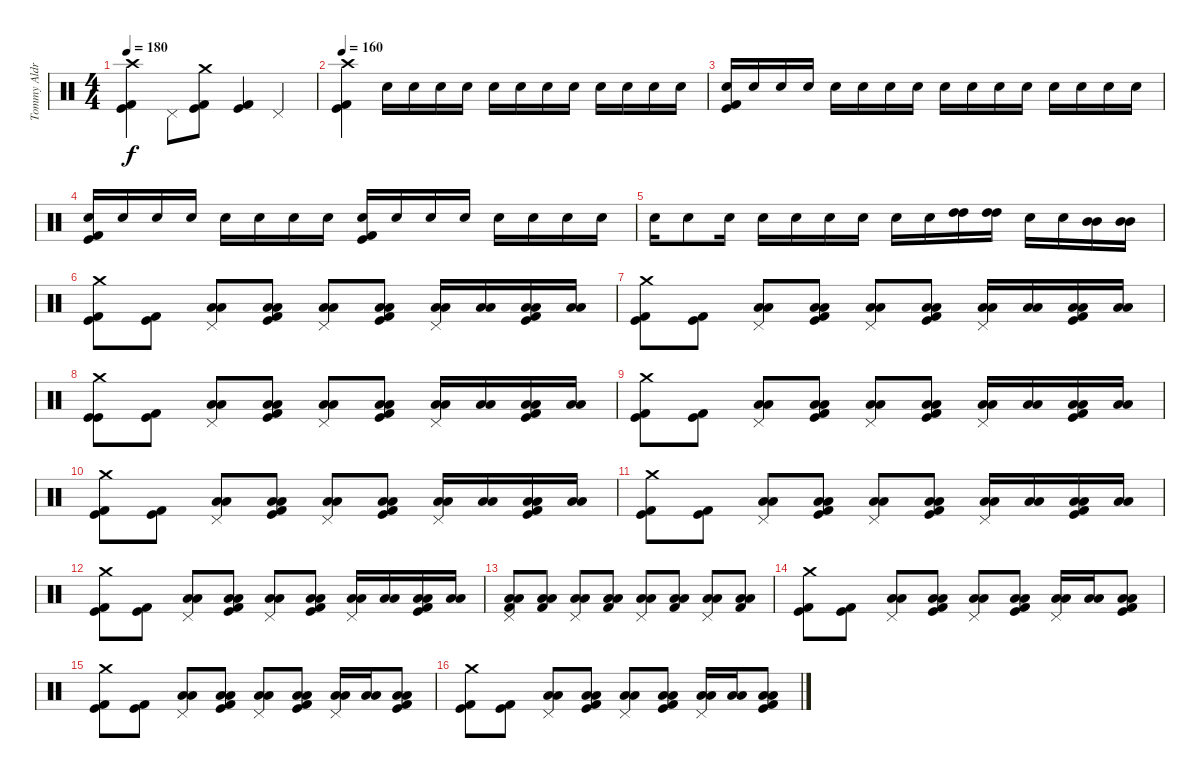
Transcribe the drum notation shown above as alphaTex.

\track ("Tommy Aldridge" "Tommy Aldr") {instrument percussion}
\staff {score}
\articulation defaults
\ts (4 4)
\tempo 180
\clef neutral
\ks c
("Crash high (hit)" "Kick (hit)" "Kick (hit) 2").4{dy f} "Pedal Hi-Hat (hit)".8 ("Crash medium (hit)" "Kick (hit)" "Kick (hit) 2").8 ("Kick (hit)" "Kick (hit) 2").4 "Pedal Hi-Hat (hit)".4 |
\tempo 160
("Crash high (hit)" "Kick (hit)" "Kick (hit) 2").4 "Electric Snare (hit)".16 "Electric Snare (hit)".16 "Electric Snare (hit)".16 "Electric Snare (hit)".16 "Electric Snare (hit)".16 "Electric Snare (hit)".16 "Electric Snare (hit)".16 "Electric Snare (hit)".16 "Electric Snare (hit)".16 "Electric Snare (hit)".16 "Electric Snare (hit)".16 "Electric Snare (hit)".16 |
("Electric Snare (hit)" "Kick (hit)" "Kick (hit) 2").16 "Electric Snare (hit)".16 "Electric Snare (hit)".16 "Electric Snare (hit)".16 "Electric Snare (hit)".16 "Electric Snare (hit)".16 "Electric Snare (hit)".16 "Electric Snare (hit)".16 "Electric Snare (hit)".16 "Electric Snare (hit)".16 "Electric Snare (hit)".16 "Electric Snare (hit)".16 "Electric Snare (hit)".16 "Electric Snare (hit)".16 "Electric Snare (hit)".16 "Electric Snare (hit)".16 |
("Electric Snare (hit)" "Kick (hit)" "Kick (hit) 2").16 "Electric Snare (hit)".16 "Electric Snare (hit)".16 "Electric Snare (hit)".16 "Electric Snare (hit)".16 "Electric Snare (hit)".16 "Electric Snare (hit)".16 "Electric Snare (hit)".16 ("Electric Snare (hit)" "Kick (hit)" "Kick (hit) 2").16 "Electric Snare (hit)".16 "Electric Snare (hit)".16 "Electric Snare (hit)".16 "Electric Snare (hit)".16 "Electric Snare (hit)".16 "Electric Snare (hit)".16 "Electric Snare (hit)".16 |
"Electric Snare (hit)".16 "Electric Snare (hit)".8 "Electric Snare (hit)".16 "Electric Snare (hit)".16 "Electric Snare (hit)".16 "Electric Snare (hit)".16 "Electric Snare (hit)".16 "Electric Snare (hit)".16 "Electric Snare (hit)".16 ("High Tom (hit)" "High Tom (hit)").16 ("High Tom (hit)" "High Tom (hit)").16 "Electric Snare (hit)".16 "Electric Snare (hit)".16 ("Mid Tom (hit)" "Mid Tom (hit)").16 ("Mid Tom (hit)" "Mid Tom (hit)").16 |
("Crash medium (hit)" "Kick (hit)" "Kick (hit) 2").8 ("Kick (hit)" "Kick (hit) 2").8 ("Pedal Hi-Hat (hit)" "Low Tom (hit)" "Low Tom (hit)").8 ("Low Tom (hit)" "Low Tom (hit)" "Kick (hit)" "Kick (hit) 2").8 ("Pedal Hi-Hat (hit)" "Low Tom (hit)" "Low Tom (hit)").8 ("Low Tom (hit)" "Low Tom (hit)" "Kick (hit)" "Kick (hit) 2").8 ("Pedal Hi-Hat (hit)" "Low Tom (hit)" "Low Tom (hit)").16 ("Low Tom (hit)" "Low Tom (hit)").16 ("Low Tom (hit)" "Low Tom (hit)" "Kick (hit)" "Kick (hit) 2").16 ("Low Tom (hit)" "Low Tom (hit)").16 |
("Crash medium (hit)" "Kick (hit)" "Kick (hit) 2").8 ("Kick (hit)" "Kick (hit) 2").8 ("Pedal Hi-Hat (hit)" "Low Tom (hit)" "Low Tom (hit)").8 ("Low Tom (hit)" "Low Tom (hit)" "Kick (hit)" "Kick (hit) 2").8 ("Pedal Hi-Hat (hit)" "Low Tom (hit)" "Low Tom (hit)").8 ("Low Tom (hit)" "Low Tom (hit)" "Kick (hit)" "Kick (hit) 2").8 ("Pedal Hi-Hat (hit)" "Low Tom (hit)" "Low Tom (hit)").16 ("Low Tom (hit)" "Low Tom (hit)").16 ("Low Tom (hit)" "Low Tom (hit)" "Kick (hit)" "Kick (hit) 2").16 ("Low Tom (hit)" "Low Tom (hit)").16 |
("Crash medium (hit)" "Kick (hit)" "Kick (hit)").8 ("Kick (hit)" "Kick (hit) 2").8 ("Pedal Hi-Hat (hit)" "Low Tom (hit)" "Low Tom (hit)").8 ("Low Tom (hit)" "Low Tom (hit)" "Kick (hit)" "Kick (hit) 2").8 ("Pedal Hi-Hat (hit)" "Low Tom (hit)" "Low Tom (hit)").8 ("Low Tom (hit)" "Low Tom (hit)" "Kick (hit)" "Kick (hit) 2").8 ("Pedal Hi-Hat (hit)" "Low Tom (hit)" "Low Tom (hit)").16 ("Low Tom (hit)" "Low Tom (hit)").16 ("Low Tom (hit)" "Low Tom (hit)" "Kick (hit)" "Kick (hit) 2").16 ("Low Tom (hit)" "Low Tom (hit)").16 |
("Crash medium (hit)" "Kick (hit)" "Kick (hit) 2").8 ("Kick (hit)" "Kick (hit) 2").8 ("Pedal Hi-Hat (hit)" "Low Tom (hit)" "Low Tom (hit)").8 ("Low Tom (hit)" "Low Tom (hit)" "Kick (hit)" "Kick (hit) 2").8 ("Pedal Hi-Hat (hit)" "Low Tom (hit)" "Low Tom (hit)").8 ("Low Tom (hit)" "Low Tom (hit)" "Kick (hit)" "Kick (hit) 2").8 ("Pedal Hi-Hat (hit)" "Low Tom (hit)" "Low Tom (hit)").16 ("Low Tom (hit)" "Low Tom (hit)").16 ("Low Tom (hit)" "Low Tom (hit)" "Kick (hit)" "Kick (hit) 2").16 ("Low Tom (hit)" "Low Tom (hit)").16 |
("Crash medium (hit)" "Kick (hit)" "Kick (hit) 2").8 ("Kick (hit)" "Kick (hit) 2").8 ("Pedal Hi-Hat (hit)" "Low Tom (hit)" "Low Tom (hit)").8 ("Low Tom (hit)" "Low Tom (hit)" "Kick (hit)" "Kick (hit) 2").8 ("Pedal Hi-Hat (hit)" "Low Tom (hit)" "Low Tom (hit)").8 ("Low Tom (hit)" "Low Tom (hit)" "Kick (hit)" "Kick (hit) 2").8 ("Pedal Hi-Hat (hit)" "Low Tom (hit)" "Low Tom (hit)").16 ("Low Tom (hit)" "Low Tom (hit)").16 ("Low Tom (hit)" "Low Tom (hit)" "Kick (hit)" "Kick (hit) 2").16 ("Low Tom (hit)" "Low Tom (hit)").16 |
("Crash medium (hit)" "Kick (hit)" "Kick (hit) 2").8 ("Kick (hit)" "Kick (hit) 2").8 ("Pedal Hi-Hat (hit)" "Low Tom (hit)" "Low Tom (hit)").8 ("Low Tom (hit)" "Low Tom (hit)" "Kick (hit)" "Kick (hit) 2").8 ("Pedal Hi-Hat (hit)" "Low Tom (hit)" "Low Tom (hit)").8 ("Low Tom (hit)" "Low Tom (hit)" "Kick (hit)" "Kick (hit) 2").8 ("Pedal Hi-Hat (hit)" "Low Tom (hit)" "Low Tom (hit)").16 ("Low Tom (hit)" "Low Tom (hit)").16 ("Low Tom (hit)" "Low Tom (hit)" "Kick (hit)" "Kick (hit) 2").16 ("Low Tom (hit)" "Low Tom (hit)").16 |
("Crash medium (hit)" "Kick (hit)" "Kick (hit) 2").8 ("Kick (hit)" "Kick (hit) 2").8 ("Pedal Hi-Hat (hit)" "Low Tom (hit)" "Low Tom (hit)").8 ("Low Tom (hit)" "Low Tom (hit)" "Kick (hit)" "Kick (hit) 2").8 ("Pedal Hi-Hat (hit)" "Low Tom (hit)" "Low Tom (hit)").8 ("Low Tom (hit)" "Low Tom (hit)" "Kick (hit)" "Kick (hit) 2").8 ("Pedal Hi-Hat (hit)" "Low Tom (hit)" "Low Tom (hit)").16 ("Low Tom (hit)" "Low Tom (hit)").16 ("Low Tom (hit)" "Low Tom (hit)" "Kick (hit)" "Kick (hit) 2").16 ("Low Tom (hit)" "Low Tom (hit)").16 |
("Pedal Hi-Hat (hit)" "Low Tom (hit)" "Low Tom (hit)" "Kick (hit) 2").8 ("Low Tom (hit)" "Low Tom (hit)" "Kick (hit) 2").8 ("Pedal Hi-Hat (hit)" "Low Tom (hit)" "Low Tom (hit)").8 ("Low Tom (hit)" "Low Tom (hit)" "Kick (hit) 2").8 ("Pedal Hi-Hat (hit)" "Low Tom (hit)" "Low Tom (hit)").8 ("Low Tom (hit)" "Low Tom (hit)" "Kick (hit) 2").8 ("Pedal Hi-Hat (hit)" "Low Tom (hit)" "Low Tom (hit)").8 ("Low Tom (hit)" "Low Tom (hit)" "Kick (hit) 2").8 |
("Crash medium (hit)" "Kick (hit)" "Kick (hit) 2").8 ("Kick (hit)" "Kick (hit) 2").8 ("Pedal Hi-Hat (hit)" "Low Tom (hit)" "Low Tom (hit)").8 ("Low Tom (hit)" "Low Tom (hit)" "Kick (hit)" "Kick (hit) 2").8 ("Pedal Hi-Hat (hit)" "Low Tom (hit)" "Low Tom (hit)").8 ("Low Tom (hit)" "Low Tom (hit)" "Kick (hit)" "Kick (hit) 2").8 ("Pedal Hi-Hat (hit)" "Low Tom (hit)" "Low Tom (hit)").16 ("Low Tom (hit)" "Low Tom (hit)").16 ("Low Tom (hit)" "Low Tom (hit)" "Kick (hit)" "Kick (hit) 2").8 |
("Crash medium (hit)" "Kick (hit)" "Kick (hit) 2").8 ("Kick (hit)" "Kick (hit) 2").8 ("Pedal Hi-Hat (hit)" "Low Tom (hit)" "Low Tom (hit)").8 ("Low Tom (hit)" "Low Tom (hit)" "Kick (hit)" "Kick (hit) 2").8 ("Pedal Hi-Hat (hit)" "Low Tom (hit)" "Low Tom (hit)").8 ("Low Tom (hit)" "Low Tom (hit)" "Kick (hit)" "Kick (hit) 2").8 ("Pedal Hi-Hat (hit)" "Low Tom (hit)" "Low Tom (hit)").16 ("Low Tom (hit)" "Low Tom (hit)").16 ("Low Tom (hit)" "Low Tom (hit)" "Kick (hit)" "Kick (hit) 2").8 |
("Crash medium (hit)" "Kick (hit)" "Kick (hit) 2").8 ("Kick (hit)" "Kick (hit) 2").8 ("Pedal Hi-Hat (hit)" "Low Tom (hit)" "Low Tom (hit)").8 ("Low Tom (hit)" "Low Tom (hit)" "Kick (hit)" "Kick (hit) 2").8 ("Pedal Hi-Hat (hit)" "Low Tom (hit)" "Low Tom (hit)").8 ("Low Tom (hit)" "Low Tom (hit)" "Kick (hit)" "Kick (hit) 2").8 ("Pedal Hi-Hat (hit)" "Low Tom (hit)" "Low Tom (hit)").16 ("Low Tom (hit)" "Low Tom (hit)").16 ("Low Tom (hit)" "Low Tom (hit)" "Kick (hit)" "Kick (hit) 2").8
